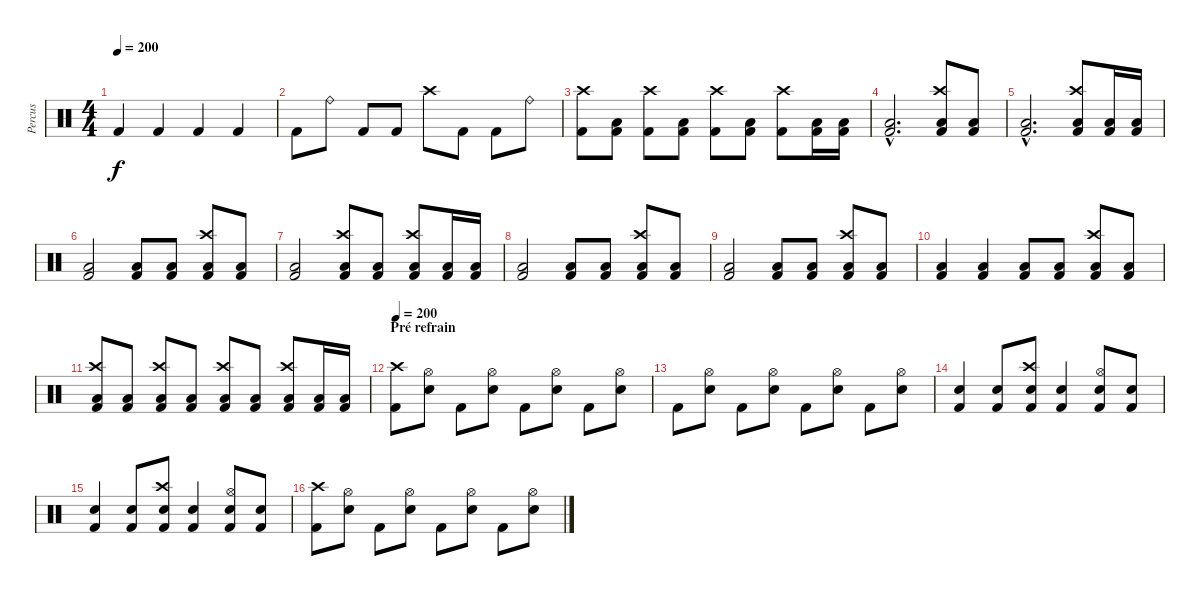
\track ("Percus" "Percus") {instrument percussion}
\staff {score}
\articulation defaults
\ts (4 4)
\tempo 200
\clef neutral
\ks c "Kick (hit) 2".4{dy f} "Kick (hit) 2".4 "Kick (hit) 2".4 "Kick (hit) 2".4
|
"Kick (hit) 2".8 "Ride (bell)".8 "Kick (hit) 2".8 "Kick (hit) 2".8 "Crash high (hit)".8 "Kick (hit) 2".8 "Kick (hit) 2".8 "Ride (bell)".8 |
("Crash high (hit)" "Kick (hit) 2").8 ("Low Floor Tom (hit)" "Kick (hit) 2").8 ("Crash high (hit)" "Kick (hit) 2").8 ("Low Floor Tom (hit)" "Kick (hit) 2").8 ("Crash high (hit)" "Kick (hit) 2").8 ("Low Floor Tom (hit)" "Kick (hit) 2").8 ("Crash high (hit)" "Kick (hit) 2").8 ("Low Floor Tom (hit)" "Kick (hit) 2").16 ("Low Floor Tom (hit)" "Kick (hit) 2").16 |
\section ("" "")
("Low Floor Tom (hit)"{hac} "Kick (hit) 2"{hac}).2{d} ("Crash high (hit)" "Low Floor Tom (hit)" "Kick (hit) 2").8 ("Low Floor Tom (hit)" "Kick (hit) 2").8 |
("Low Floor Tom (hit)"{hac} "Kick (hit) 2"{hac}).2{d} ("Crash high (hit)" "Low Floor Tom (hit)" "Kick (hit) 2").8 ("Low Floor Tom (hit)" "Kick (hit) 2").16 ("Low Floor Tom (hit)" "Kick (hit) 2").16 |
("Low Floor Tom (hit)" "Kick (hit) 2").2 ("Low Floor Tom (hit)" "Kick (hit) 2").8 ("Low Floor Tom (hit)" "Kick (hit) 2").8 ("Crash high (hit)" "Low Floor Tom (hit)" "Kick (hit) 2").8 ("Low Floor Tom (hit)" "Kick (hit) 2").8 |
("Low Floor Tom (hit)" "Kick (hit) 2").2 ("Crash high (hit)" "Low Floor Tom (hit)" "Kick (hit) 2").8 ("Low Floor Tom (hit)" "Kick (hit) 2").8 ("Crash high (hit)" "Low Floor Tom (hit)" "Kick (hit) 2").8 ("Low Floor Tom (hit)" "Kick (hit) 2").16 ("Low Floor Tom (hit)" "Kick (hit) 2").16 |
("Low Floor Tom (hit)" "Kick (hit) 2").2 ("Low Floor Tom (hit)" "Kick (hit) 2").8 ("Low Floor Tom (hit)" "Kick (hit) 2").8 ("Crash high (hit)" "Low Floor Tom (hit)" "Kick (hit) 2").8 ("Low Floor Tom (hit)" "Kick (hit) 2").8 |
("Low Floor Tom (hit)" "Kick (hit) 2").2 ("Low Floor Tom (hit)" "Kick (hit) 2").8 ("Low Floor Tom (hit)" "Kick (hit) 2").8 ("Crash high (hit)" "Low Floor Tom (hit)" "Kick (hit) 2").8 ("Low Floor Tom (hit)" "Kick (hit) 2").8 |
("Low Floor Tom (hit)" "Kick (hit) 2").4 ("Low Floor Tom (hit)" "Kick (hit) 2").4 ("Low Floor Tom (hit)" "Kick (hit) 2").8 ("Low Floor Tom (hit)" "Kick (hit) 2").8 ("Crash high (hit)" "Low Floor Tom (hit)" "Kick (hit) 2").8 ("Low Floor Tom (hit)" "Kick (hit) 2").8 |
("Crash high (hit)" "Low Floor Tom (hit)" "Kick (hit) 2").8 ("Low Floor Tom (hit)" "Kick (hit) 2").8 ("Crash high (hit)" "Low Floor Tom (hit)" "Kick (hit) 2").8 ("Low Floor Tom (hit)" "Kick (hit) 2").8 ("Crash high (hit)" "Low Floor Tom (hit)" "Kick (hit) 2").8 ("Low Floor Tom (hit)" "Kick (hit) 2").8 ("Crash high (hit)" "Low Floor Tom (hit)" "Kick (hit) 2").8 ("Low Floor Tom (hit)" "Kick (hit) 2").16 ("Low Floor Tom (hit)" "Kick (hit) 2").16 |
\section ("" "Pré refrain")
\tempo 200
("Crash high (hit)" "Kick (hit) 2").8 ("Hi-Hat (open)" "Snare (hit) 2").8 "Kick (hit) 2".8 ("Hi-Hat (open)" "Snare (hit) 2").8 "Kick (hit) 2".8 ("Hi-Hat (open)" "Snare (hit) 2").8 "Kick (hit) 2".8 ("Hi-Hat (open)" "Snare (hit) 2").8 |
"Kick (hit) 2".8 ("Hi-Hat (open)" "Snare (hit) 2").8 "Kick (hit) 2".8 ("Hi-Hat (open)" "Snare (hit) 2").8 "Kick (hit) 2".8 ("Hi-Hat (open)" "Snare (hit) 2").8 "Kick (hit) 2".8 ("Hi-Hat (open)" "Snare (hit) 2").8 |
("Snare (hit) 2" "Kick (hit) 2").4 ("Snare (hit) 2" "Kick (hit) 2").8 ("Crash high (hit)" "Snare (hit) 2" "Kick (hit) 2").8 ("Snare (hit) 2" "Kick (hit) 2").4 ("Hi-Hat (open)" "Snare (hit) 2" "Kick (hit) 2").8 ("Snare (hit) 2" "Kick (hit) 2").8 |
("Snare (hit) 2" "Kick (hit) 2").4 ("Snare (hit) 2" "Kick (hit) 2").8 ("Crash high (hit)" "Snare (hit) 2" "Kick (hit) 2").8 ("Snare (hit) 2" "Kick (hit) 2").4 ("Hi-Hat (open)" "Snare (hit) 2" "Kick (hit) 2").8 ("Snare (hit) 2" "Kick (hit) 2").8 |
("Crash high (hit)" "Kick (hit) 2").8 ("Hi-Hat (open)" "Snare (hit) 2").8 "Kick (hit) 2".8 ("Hi-Hat (open)" "Snare (hit) 2").8 "Kick (hit) 2".8 ("Hi-Hat (open)" "Snare (hit) 2").8 "Kick (hit) 2".8 ("Hi-Hat (open)" "Snare (hit) 2").8
